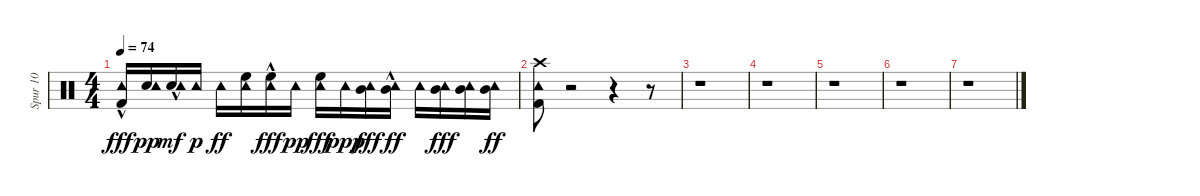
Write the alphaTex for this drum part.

\track ("Spur 10" "Spur 10") {instrument percussion}
\staff {score}
\articulation defaults
\ts (4 4)
\tempo 74
\clef neutral
\ks c
("Kick (hit) 2"{hac} "Tambourine (hit)").16{dy fff} ("Snare (hit) 2" "Tambourine (hit)").16{dy pp} ("Snare (hit) 2"{hac} "Tambourine (hit)").16{dy mf} "Tambourine (hit)".16{dy p} "Tambourine (hit)".16{dy ff} ("Tambourine (hit)" "High Floor Tom (hit)").16 ("Tambourine (hit)" "High Floor Tom (hit)"{hac}).16{dy fff} "Tambourine (hit)".16{dy pp} ("Tambourine (hit)" "High Floor Tom (hit)").16{dy fff} "Tambourine (hit)".16{dy ppp} ("Tambourine (hit)" "Mid Tom (hit)").16{dy fff} ("Tambourine (hit)" "Mid Tom (hit)"{hac}).16{dy ff} "Tambourine (hit)".16 ("Tambourine (hit)" "Mid Tom (hit)").16{dy fff} ("Tambourine (hit)" "Mid Tom (hit)").16 ("Tambourine (hit)" "Mid Tom (hit)").16{dy ff} |
("Kick (hit) 2" "Crash high (hit)" "Tambourine (hit)").8 r.2 r.4 r.8 |
r.1 |
r.1 |
r.1 |
r.1 |
r.1
